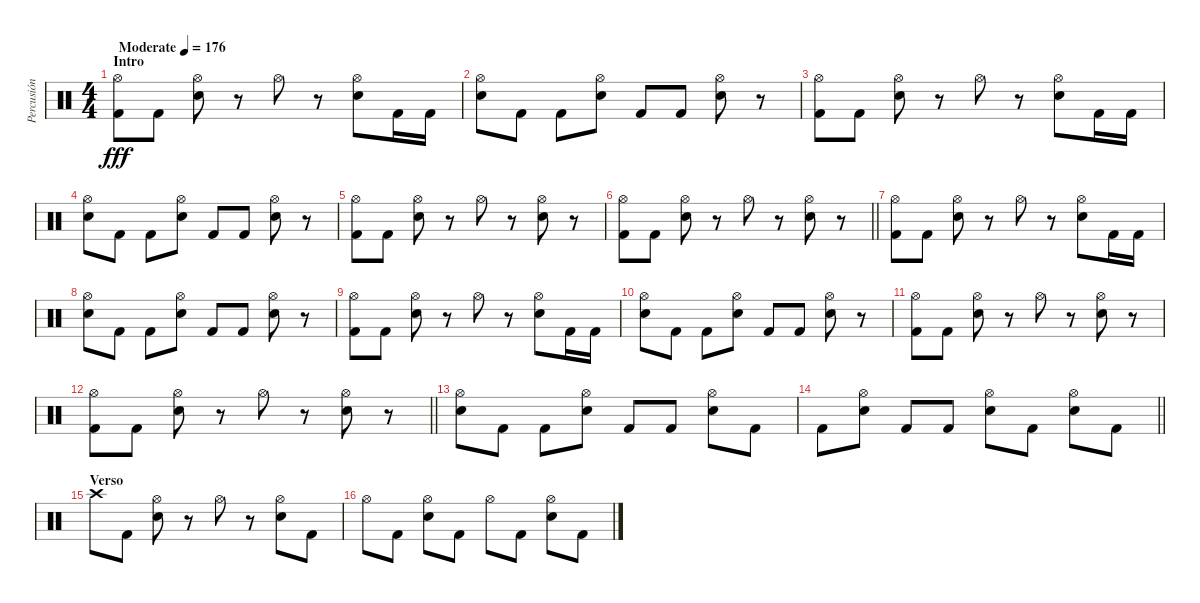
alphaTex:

\track ("Percusión" "Percusión") {instrument percussion}
\staff {score}
\articulation defaults
\ts (4 4)
\section ("" "Intro")
\tempo (176 "Moderate")
\clef neutral
\ks c
("Hi-Hat (open)" "Kick (hit) 2").8{dy fff} "Kick (hit) 2".8 ("Hi-Hat (open)" "Electric Snare (hit)").8 r.8 "Hi-Hat (open)".8 r.8 ("Hi-Hat (open)" "Electric Snare (hit)").8 "Kick (hit) 2".16 "Kick (hit) 2".16 |
("Hi-Hat (open)" "Electric Snare (hit)").8 "Kick (hit) 2".8 "Kick (hit) 2".8 ("Hi-Hat (open)" "Electric Snare (hit)").8 "Kick (hit) 2".8 "Kick (hit) 2".8 ("Hi-Hat (open)" "Electric Snare (hit)").8 r.8 |
("Hi-Hat (open)" "Kick (hit) 2").8 "Kick (hit) 2".8 ("Hi-Hat (open)" "Electric Snare (hit)").8 r.8 "Hi-Hat (open)".8 r.8 ("Hi-Hat (open)" "Electric Snare (hit)").8 "Kick (hit) 2".16 "Kick (hit) 2".16 |
("Hi-Hat (open)" "Electric Snare (hit)").8 "Kick (hit) 2".8 "Kick (hit) 2".8 ("Hi-Hat (open)" "Electric Snare (hit)").8 "Kick (hit) 2".8 "Kick (hit) 2".8 ("Hi-Hat (open)" "Electric Snare (hit)").8 r.8 |
("Hi-Hat (open)" "Kick (hit) 2").8 "Kick (hit) 2".8 ("Hi-Hat (open)" "Electric Snare (hit)").8 r.8 "Hi-Hat (open)".8 r.8 ("Hi-Hat (open)" "Electric Snare (hit)").8 r.8 |
\barLineRight lightlight
("Hi-Hat (open)" "Kick (hit) 2").8 "Kick (hit) 2".8 ("Hi-Hat (open)" "Electric Snare (hit)").8 r.8 "Hi-Hat (open)".8 r.8 ("Hi-Hat (open)" "Electric Snare (hit)").8 r.8 |
("Hi-Hat (open)" "Kick (hit) 2").8 "Kick (hit) 2".8 ("Hi-Hat (open)" "Electric Snare (hit)").8 r.8 "Hi-Hat (open)".8 r.8 ("Hi-Hat (open)" "Electric Snare (hit)").8 "Kick (hit) 2".16 "Kick (hit) 2".16 |
("Hi-Hat (open)" "Electric Snare (hit)").8 "Kick (hit) 2".8 "Kick (hit) 2".8 ("Hi-Hat (open)" "Electric Snare (hit)").8 "Kick (hit) 2".8 "Kick (hit) 2".8 ("Hi-Hat (open)" "Electric Snare (hit)").8 r.8 |
("Hi-Hat (open)" "Kick (hit) 2").8 "Kick (hit) 2".8 ("Hi-Hat (open)" "Electric Snare (hit)").8 r.8 "Hi-Hat (open)".8 r.8 ("Hi-Hat (open)" "Electric Snare (hit)").8 "Kick (hit) 2".16 "Kick (hit) 2".16 |
("Hi-Hat (open)" "Electric Snare (hit)").8 "Kick (hit) 2".8 "Kick (hit) 2".8 ("Hi-Hat (open)" "Electric Snare (hit)").8 "Kick (hit) 2".8 "Kick (hit) 2".8 ("Hi-Hat (open)" "Electric Snare (hit)").8 r.8 |
("Hi-Hat (open)" "Kick (hit) 2").8 "Kick (hit) 2".8 ("Hi-Hat (open)" "Electric Snare (hit)").8 r.8 "Hi-Hat (open)".8 r.8 ("Hi-Hat (open)" "Electric Snare (hit)").8 r.8 |
\barLineRight lightlight
("Hi-Hat (open)" "Kick (hit) 2").8 "Kick (hit) 2".8 ("Hi-Hat (open)" "Electric Snare (hit)").8 r.8 "Hi-Hat (open)".8 r.8 ("Hi-Hat (open)" "Electric Snare (hit)").8 r.8 |
("Hi-Hat (open)" "Electric Snare (hit)").8 "Kick (hit) 2".8 "Kick (hit) 2".8 ("Hi-Hat (open)" "Electric Snare (hit)").8 "Kick (hit) 2".8 "Kick (hit) 2".8 ("Hi-Hat (open)" "Electric Snare (hit)").8 "Kick (hit) 2".8 |
\barLineRight lightlight "Kick (hit) 2".8
("Hi-Hat (open)" "Electric Snare (hit)").8 "Kick (hit) 2".8 "Kick (hit) 2".8 ("Hi-Hat (open)" "Electric Snare (hit)").8 "Kick (hit) 2".8 ("Hi-Hat (open)" "Electric Snare (hit)").8 "Kick (hit) 2".8 |
\section ("" "Verso")
"Crash high (hit)".8 "Kick (hit) 2".8 ("Hi-Hat (open)" "Electric Snare (hit)").8 r.8 "Hi-Hat (open)".8 r.8 ("Hi-Hat (open)" "Electric Snare (hit)").8 "Kick (hit) 2".8 |
"Hi-Hat (open)".8 "Kick (hit) 2".8 ("Hi-Hat (open)" "Electric Snare (hit)").8 "Kick (hit) 2".8 "Hi-Hat (open)".8 "Kick (hit) 2".8 ("Hi-Hat (open)" "Electric Snare (hit)").8 "Kick (hit) 2".8
